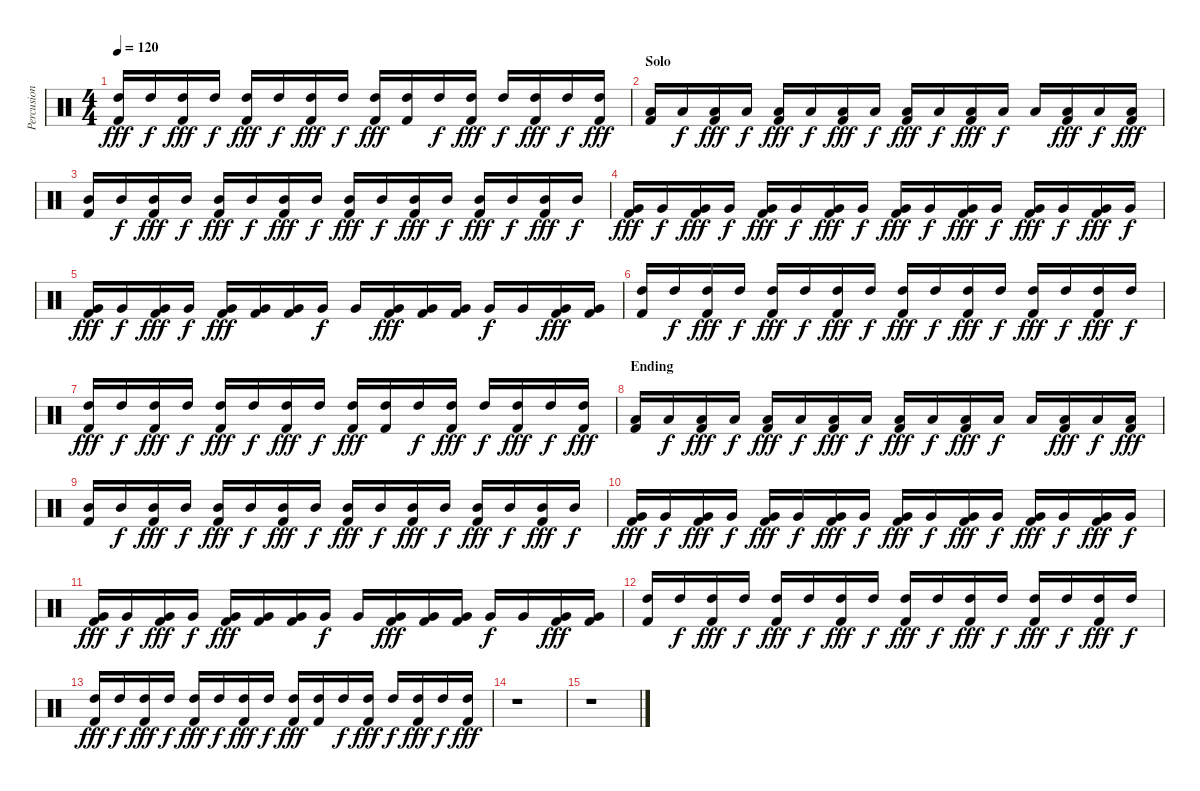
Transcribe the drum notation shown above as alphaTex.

\track ("Percusion" "Percusion") {instrument percussion}
\staff {score}
\articulation defaults
\ts (4 4)
\tempo 120
\clef neutral
\ks c
("High Tom (hit)" "Kick (hit) 2").16{dy fff} "High Tom (hit)".16{dy f} ("High Tom (hit)" "Kick (hit) 2").16{dy fff} "High Tom (hit)".16{dy f} ("High Tom (hit)" "Kick (hit) 2").16{dy fff} "High Tom (hit)".16{dy f} ("High Tom (hit)" "Kick (hit) 2").16{dy fff} "High Tom (hit)".16{dy f} ("High Tom (hit)" "Kick (hit) 2").16{dy fff} ("High Tom (hit)" "Kick (hit) 2").16 "High Tom (hit)".16{dy f} ("High Tom (hit)" "Kick (hit) 2").16{dy fff} "High Tom (hit)".16{dy f} ("High Tom (hit)" "Kick (hit) 2").16{dy fff} "High Tom (hit)".16{dy f} ("High Tom (hit)" "Kick (hit) 2").16{dy fff} |
\section ("" "Solo")
("Low Tom (hit)" "Kick (hit) 2").16 "Low Tom (hit)".16{dy f} ("Low Tom (hit)" "Kick (hit) 2").16{dy fff} "Low Tom (hit)".16{dy f} ("Low Tom (hit)" "Kick (hit) 2").16{dy fff} "Low Tom (hit)".16{dy f} ("Low Tom (hit)" "Kick (hit) 2").16{dy fff} "Low Tom (hit)".16{dy f} ("Low Tom (hit)" "Kick (hit) 2").16{dy fff} "Low Tom (hit)".16{dy f} ("Low Tom (hit)" "Kick (hit) 2").16{dy fff} "Low Tom (hit)".16{dy f} "Low Tom (hit)".16 ("Low Tom (hit)" "Kick (hit) 2").16{dy fff} "Low Tom (hit)".16{dy f} ("Low Tom (hit)" "Kick (hit) 2").16{dy fff} |
("Mid Tom (hit)" "Kick (hit) 2").16 "Mid Tom (hit)".16{dy f} ("Mid Tom (hit)" "Kick (hit) 2").16{dy fff} "Mid Tom (hit)".16{dy f} ("Mid Tom (hit)" "Kick (hit) 2").16{dy fff} "Mid Tom (hit)".16{dy f} ("Mid Tom (hit)" "Kick (hit) 2").16{dy fff} "Mid Tom (hit)".16{dy f} ("Mid Tom (hit)" "Kick (hit) 2").16{dy fff} "Mid Tom (hit)".16{dy f} ("Mid Tom (hit)" "Kick (hit) 2").16{dy fff} "Mid Tom (hit)".16{dy f} ("Mid Tom (hit)" "Kick (hit) 2").16{dy fff} "Mid Tom (hit)".16{dy f} ("Mid Tom (hit)" "Kick (hit) 2").16{dy fff} "Mid Tom (hit)".16{dy f} |
("Very Low Tom (hit)" "Kick (hit) 2").16{dy fff} "Very Low Tom (hit)".16{dy f} ("Very Low Tom (hit)" "Kick (hit) 2").16{dy fff} "Very Low Tom (hit)".16{dy f} ("Very Low Tom (hit)" "Kick (hit) 2").16{dy fff} "Very Low Tom (hit)".16{dy f} ("Very Low Tom (hit)" "Kick (hit) 2").16{dy fff} "Very Low Tom (hit)".16{dy f} ("Very Low Tom (hit)" "Kick (hit) 2").16{dy fff} "Very Low Tom (hit)".16{dy f} ("Very Low Tom (hit)" "Kick (hit) 2").16{dy fff} "Very Low Tom (hit)".16{dy f} ("Very Low Tom (hit)" "Kick (hit) 2").16{dy fff} "Very Low Tom (hit)".16{dy f} ("Very Low Tom (hit)" "Kick (hit) 2").16{dy fff} "Very Low Tom (hit)".16{dy f} |
("Very Low Tom (hit)" "Kick (hit) 2").16{dy fff} "Very Low Tom (hit)".16{dy f} ("Very Low Tom (hit)" "Kick (hit) 2").16{dy fff} "Very Low Tom (hit)".16{dy f} ("Very Low Tom (hit)" "Kick (hit) 2").16{dy fff} ("Very Low Tom (hit)" "Kick (hit) 2").16 ("Very Low Tom (hit)" "Kick (hit) 2").16 "Very Low Tom (hit)".16{dy f} "Very Low Tom (hit)".16 ("Very Low Tom (hit)" "Kick (hit) 2").16{dy fff} ("Very Low Tom (hit)" "Kick (hit) 2").16 ("Very Low Tom (hit)" "Kick (hit) 2").16 "Very Low Tom (hit)".16{dy f} "Very Low Tom (hit)".16 ("Very Low Tom (hit)" "Kick (hit) 2").16{dy fff} ("Very Low Tom (hit)" "Kick (hit) 2").16 |
("High Tom (hit)" "Kick (hit) 2").16 "High Tom (hit)".16{dy f} ("High Tom (hit)" "Kick (hit) 2").16{dy fff} "High Tom (hit)".16{dy f} ("High Tom (hit)" "Kick (hit) 2").16{dy fff} "High Tom (hit)".16{dy f} ("High Tom (hit)" "Kick (hit) 2").16{dy fff} "High Tom (hit)".16{dy f} ("High Tom (hit)" "Kick (hit) 2").16{dy fff} "High Tom (hit)".16{dy f} ("High Tom (hit)" "Kick (hit) 2").16{dy fff} "High Tom (hit)".16{dy f} ("High Tom (hit)" "Kick (hit) 2").16{dy fff} "High Tom (hit)".16{dy f} ("High Tom (hit)" "Kick (hit) 2").16{dy fff} "High Tom (hit)".16{dy f} |
("High Tom (hit)" "Kick (hit) 2").16{dy fff} "High Tom (hit)".16{dy f} ("High Tom (hit)" "Kick (hit) 2").16{dy fff} "High Tom (hit)".16{dy f} ("High Tom (hit)" "Kick (hit) 2").16{dy fff} "High Tom (hit)".16{dy f} ("High Tom (hit)" "Kick (hit) 2").16{dy fff} "High Tom (hit)".16{dy f} ("High Tom (hit)" "Kick (hit) 2").16{dy fff} ("High Tom (hit)" "Kick (hit) 2").16 "High Tom (hit)".16{dy f} ("High Tom (hit)" "Kick (hit) 2").16{dy fff} "High Tom (hit)".16{dy f} ("High Tom (hit)" "Kick (hit) 2").16{dy fff} "High Tom (hit)".16{dy f} ("High Tom (hit)" "Kick (hit) 2").16{dy fff} |
\section ("" "Ending")
("Low Tom (hit)" "Kick (hit) 2").16 "Low Tom (hit)".16{dy f} ("Low Tom (hit)" "Kick (hit) 2").16{dy fff} "Low Tom (hit)".16{dy f} ("Low Tom (hit)" "Kick (hit) 2").16{dy fff} "Low Tom (hit)".16{dy f} ("Low Tom (hit)" "Kick (hit) 2").16{dy fff} "Low Tom (hit)".16{dy f} ("Low Tom (hit)" "Kick (hit) 2").16{dy fff} "Low Tom (hit)".16{dy f} ("Low Tom (hit)" "Kick (hit) 2").16{dy fff} "Low Tom (hit)".16{dy f} "Low Tom (hit)".16 ("Low Tom (hit)" "Kick (hit) 2").16{dy fff} "Low Tom (hit)".16{dy f} ("Low Tom (hit)" "Kick (hit) 2").16{dy fff} |
("Mid Tom (hit)" "Kick (hit) 2").16 "Mid Tom (hit)".16{dy f} ("Mid Tom (hit)" "Kick (hit) 2").16{dy fff} "Mid Tom (hit)".16{dy f} ("Mid Tom (hit)" "Kick (hit) 2").16{dy fff} "Mid Tom (hit)".16{dy f} ("Mid Tom (hit)" "Kick (hit) 2").16{dy fff} "Mid Tom (hit)".16{dy f} ("Mid Tom (hit)" "Kick (hit) 2").16{dy fff} "Mid Tom (hit)".16{dy f} ("Mid Tom (hit)" "Kick (hit) 2").16{dy fff} "Mid Tom (hit)".16{dy f} ("Mid Tom (hit)" "Kick (hit) 2").16{dy fff} "Mid Tom (hit)".16{dy f} ("Mid Tom (hit)" "Kick (hit) 2").16{dy fff} "Mid Tom (hit)".16{dy f} |
("Very Low Tom (hit)" "Kick (hit) 2").16{dy fff} "Very Low Tom (hit)".16{dy f} ("Very Low Tom (hit)" "Kick (hit) 2").16{dy fff} "Very Low Tom (hit)".16{dy f} ("Very Low Tom (hit)" "Kick (hit) 2").16{dy fff} "Very Low Tom (hit)".16{dy f} ("Very Low Tom (hit)" "Kick (hit) 2").16{dy fff} "Very Low Tom (hit)".16{dy f} ("Very Low Tom (hit)" "Kick (hit) 2").16{dy fff} "Very Low Tom (hit)".16{dy f} ("Very Low Tom (hit)" "Kick (hit) 2").16{dy fff} "Very Low Tom (hit)".16{dy f} ("Very Low Tom (hit)" "Kick (hit) 2").16{dy fff} "Very Low Tom (hit)".16{dy f} ("Very Low Tom (hit)" "Kick (hit) 2").16{dy fff} "Very Low Tom (hit)".16{dy f} |
("Very Low Tom (hit)" "Kick (hit) 2").16{dy fff} "Very Low Tom (hit)".16{dy f} ("Very Low Tom (hit)" "Kick (hit) 2").16{dy fff} "Very Low Tom (hit)".16{dy f} ("Very Low Tom (hit)" "Kick (hit) 2").16{dy fff} ("Very Low Tom (hit)" "Kick (hit) 2").16 ("Very Low Tom (hit)" "Kick (hit) 2").16 "Very Low Tom (hit)".16{dy f} "Very Low Tom (hit)".16 ("Very Low Tom (hit)" "Kick (hit) 2").16{dy fff} ("Very Low Tom (hit)" "Kick (hit) 2").16 ("Very Low Tom (hit)" "Kick (hit) 2").16 "Very Low Tom (hit)".16{dy f} "Very Low Tom (hit)".16 ("Very Low Tom (hit)" "Kick (hit) 2").16{dy fff} ("Very Low Tom (hit)" "Kick (hit) 2").16 |
("High Tom (hit)" "Kick (hit) 2").16 "High Tom (hit)".16{dy f} ("High Tom (hit)" "Kick (hit) 2").16{dy fff} "High Tom (hit)".16{dy f} ("High Tom (hit)" "Kick (hit) 2").16{dy fff} "High Tom (hit)".16{dy f} ("High Tom (hit)" "Kick (hit) 2").16{dy fff} "High Tom (hit)".16{dy f} ("High Tom (hit)" "Kick (hit) 2").16{dy fff} "High Tom (hit)".16{dy f} ("High Tom (hit)" "Kick (hit) 2").16{dy fff} "High Tom (hit)".16{dy f} ("High Tom (hit)" "Kick (hit) 2").16{dy fff} "High Tom (hit)".16{dy f} ("High Tom (hit)" "Kick (hit) 2").16{dy fff} "High Tom (hit)".16{dy f} |
("High Tom (hit)" "Kick (hit) 2").16{dy fff} "High Tom (hit)".16{dy f} ("High Tom (hit)" "Kick (hit) 2").16{dy fff} "High Tom (hit)".16{dy f} ("High Tom (hit)" "Kick (hit) 2").16{dy fff} "High Tom (hit)".16{dy f} ("High Tom (hit)" "Kick (hit) 2").16{dy fff} "High Tom (hit)".16{dy f} ("High Tom (hit)" "Kick (hit) 2").16{dy fff} ("High Tom (hit)" "Kick (hit) 2").16 "High Tom (hit)".16{dy f} ("High Tom (hit)" "Kick (hit) 2").16{dy fff} "High Tom (hit)".16{dy f} ("High Tom (hit)" "Kick (hit) 2").16{dy fff} "High Tom (hit)".16{dy f} ("High Tom (hit)" "Kick (hit) 2").16{dy fff} |
r.1 |
r.1
